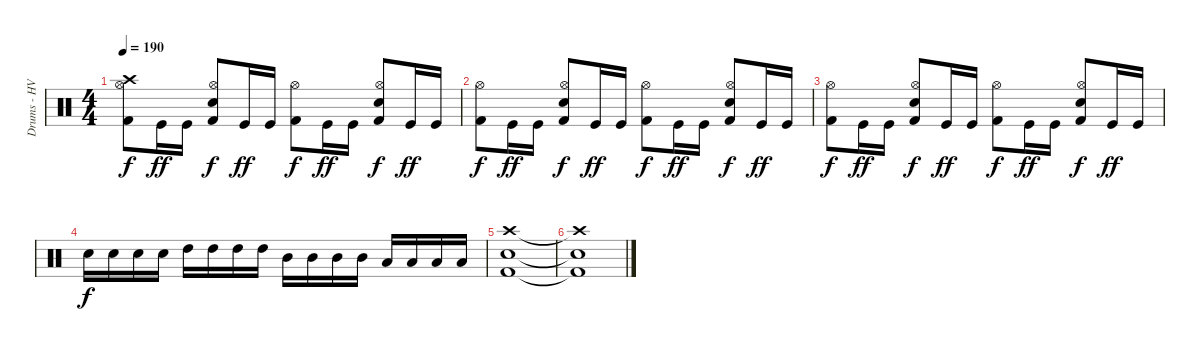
\track ("Drums - HV NikiTon" "Drums - HV") {instrument percussion}
\staff {score}
\articulation defaults
\ts (4 4)
\tempo 190
\clef neutral
\ks c
("Kick (hit) 2" "Hi-Hat (open)" "Crash high (hit)").8{dy f} "Kick (hit)".16{dy ff} "Kick (hit)".16 ("Electric Snare (hit)" "Kick (hit) 2" "Hi-Hat (open)").8{dy f} "Kick (hit)".16{dy ff} "Kick (hit)".16 ("Kick (hit) 2" "Hi-Hat (open)").8{dy f} "Kick (hit)".16{dy ff} "Kick (hit)".16 ("Electric Snare (hit)" "Kick (hit) 2" "Hi-Hat (open)").8{dy f} "Kick (hit)".16{dy ff} "Kick (hit)".16 |
("Kick (hit) 2" "Hi-Hat (open)").8{dy f} "Kick (hit)".16{dy ff} "Kick (hit)".16 ("Electric Snare (hit)" "Kick (hit) 2" "Hi-Hat (open)").8{dy f} "Kick (hit)".16{dy ff} "Kick (hit)".16 ("Kick (hit) 2" "Hi-Hat (open)").8{dy f} "Kick (hit)".16{dy ff} "Kick (hit)".16 ("Electric Snare (hit)" "Kick (hit) 2" "Hi-Hat (open)").8{dy f} "Kick (hit)".16{dy ff} "Kick (hit)".16 |
("Kick (hit) 2" "Hi-Hat (open)").8{dy f} "Kick (hit)".16{dy ff} "Kick (hit)".16 ("Electric Snare (hit)" "Kick (hit) 2" "Hi-Hat (open)").8{dy f} "Kick (hit)".16{dy ff} "Kick (hit)".16 ("Kick (hit) 2" "Hi-Hat (open)").8{dy f} "Kick (hit)".16{dy ff} "Kick (hit)".16 ("Electric Snare (hit)" "Kick (hit) 2" "Hi-Hat (open)").8{dy f} "Kick (hit)".16{dy ff} "Kick (hit)".16 |
"Electric Snare (hit)".16{dy f} "Electric Snare (hit)".16 "Electric Snare (hit)".16 "Electric Snare (hit)".16 "High Tom (hit)".16 "High Tom (hit)".16 "High Tom (hit)".16 "High Tom (hit)".16 "Mid Tom (hit)".16 "Mid Tom (hit)".16 "Mid Tom (hit)".16 "Mid Tom (hit)".16 "Low Tom (hit)".16 "Low Tom (hit)".16 "Low Tom (hit)".16 "Low Tom (hit)".16 |
("Crash high (hit)" "Electric Snare (hit)" "Kick (hit) 2").1 |
("Crash high (hit)"{t} "Electric Snare (hit)"{t} "Kick (hit) 2"{t}).1
